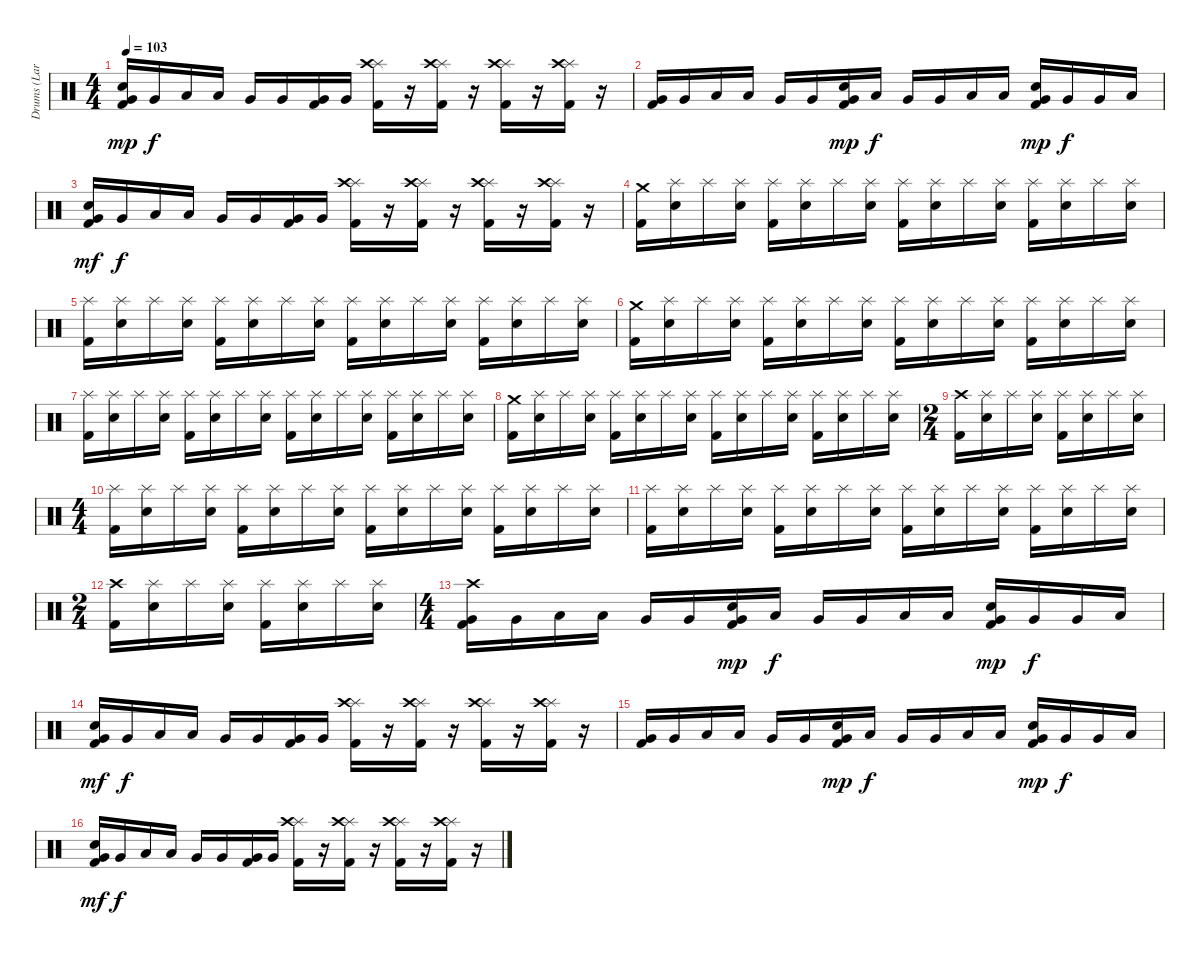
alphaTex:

\track ("Drums (Lars)" "Drums (Lar") {instrument percussion}
\staff {score}
\articulation defaults
\ts (4 4)
\tempo 103
\clef neutral
\ks c
("Very Low Tom (hit)" "Snare (hit) 2" "Kick (hit) 2").16{dy mp} "Very Low Tom (hit)".16{dy f} "Low Tom (hit)".16 "Low Tom (hit)".16 "Very Low Tom (hit)".16 "Very Low Tom (hit)".16 ("Very Low Tom (hit)" "Kick (hit) 2").16 "Very Low Tom (hit)".16 ("Splash (hit)" "Crash high (hit)" "Kick (hit) 2").16 r.16 ("Splash (hit)" "Crash high (hit)" "Kick (hit) 2").16 r.16 ("Splash (hit)" "Crash high (hit)" "Kick (hit) 2").16 r.16 ("Splash (hit)" "Crash high (hit)" "Kick (hit) 2").16 r.16 |
("Very Low Tom (hit)" "Kick (hit) 2").16 "Very Low Tom (hit)".16 "Low Tom (hit)".16 "Low Tom (hit)".16 "Very Low Tom (hit)".16 "Very Low Tom (hit)".16 ("Very Low Tom (hit)" "Snare (hit) 2" "Kick (hit) 2").16{dy mp} "Low Floor Tom (hit)".16{dy f} "Very Low Tom (hit)".16 "Very Low Tom (hit)".16 "Low Tom (hit)".16 "Low Tom (hit)".16 ("Very Low Tom (hit)" "Snare (hit) 2" "Kick (hit) 2").16{dy mp} "Very Low Tom (hit)".16{dy f} "Very Low Tom (hit)".16 "Low Floor Tom (hit)".16 |
("Very Low Tom (hit)" "Snare (hit) 2" "Kick (hit) 2").16{dy mf} "Very Low Tom (hit)".16{dy f} "Low Tom (hit)".16 "Low Tom (hit)".16 "Very Low Tom (hit)".16 "Very Low Tom (hit)".16 ("Very Low Tom (hit)" "Kick (hit) 2").16 "Very Low Tom (hit)".16 ("Splash (hit)" "Crash high (hit)" "Kick (hit) 2").16 r.16 ("Splash (hit)" "Crash high (hit)" "Kick (hit) 2").16 r.16 ("Splash (hit)" "Crash high (hit)" "Kick (hit) 2").16 r.16 ("Splash (hit)" "Crash high (hit)" "Kick (hit) 2").16 r.16 |
("Crash medium (hit)" "Kick (hit) 2").16 ("Splash (hit)" "Snare (hit) 2").16 "Splash (hit)".16 ("Splash (hit)" "Snare (hit) 2").16 ("Splash (hit)" "Kick (hit) 2").16 ("Splash (hit)" "Snare (hit) 2").16 "Splash (hit)".16 ("Splash (hit)" "Snare (hit) 2").16 ("Splash (hit)" "Kick (hit) 2").16 ("Splash (hit)" "Snare (hit) 2").16 "Splash (hit)".16 ("Splash (hit)" "Snare (hit) 2").16 ("Splash (hit)" "Kick (hit) 2").16 ("Splash (hit)" "Snare (hit) 2").16 "Splash (hit)".16 ("Splash (hit)" "Snare (hit) 2").16 |
("Splash (hit)" "Kick (hit) 2").16 ("Splash (hit)" "Snare (hit) 2").16 "Splash (hit)".16 ("Splash (hit)" "Snare (hit) 2").16 ("Splash (hit)" "Kick (hit) 2").16 ("Splash (hit)" "Snare (hit) 2").16 "Splash (hit)".16 ("Splash (hit)" "Snare (hit) 2").16 ("Splash (hit)" "Kick (hit) 2").16 ("Splash (hit)" "Snare (hit) 2").16 "Splash (hit)".16 ("Splash (hit)" "Snare (hit) 2").16 ("Splash (hit)" "Kick (hit) 2").16 ("Splash (hit)" "Snare (hit) 2").16 "Splash (hit)".16 ("Splash (hit)" "Snare (hit) 2").16 |
("Crash medium (hit)" "Kick (hit) 2").16 ("Splash (hit)" "Snare (hit) 2").16 "Splash (hit)".16 ("Splash (hit)" "Snare (hit) 2").16 ("Splash (hit)" "Kick (hit) 2").16 ("Splash (hit)" "Snare (hit) 2").16 "Splash (hit)".16 ("Splash (hit)" "Snare (hit) 2").16 ("Splash (hit)" "Kick (hit) 2").16 ("Splash (hit)" "Snare (hit) 2").16 "Splash (hit)".16 ("Splash (hit)" "Snare (hit) 2").16 ("Splash (hit)" "Kick (hit) 2").16 ("Splash (hit)" "Snare (hit) 2").16 "Splash (hit)".16 ("Splash (hit)" "Snare (hit) 2").16 |
("Splash (hit)" "Kick (hit) 2").16 ("Splash (hit)" "Snare (hit) 2").16 "Splash (hit)".16 ("Splash (hit)" "Snare (hit) 2").16 ("Splash (hit)" "Kick (hit) 2").16 ("Splash (hit)" "Snare (hit) 2").16 "Splash (hit)".16 ("Splash (hit)" "Snare (hit) 2").16 ("Splash (hit)" "Kick (hit) 2").16 ("Splash (hit)" "Snare (hit) 2").16 "Splash (hit)".16 ("Splash (hit)" "Snare (hit) 2").16 ("Splash (hit)" "Kick (hit) 2").16 ("Splash (hit)" "Snare (hit) 2").16 "Splash (hit)".16 ("Splash (hit)" "Snare (hit) 2").16 |
("Crash medium (hit)" "Kick (hit) 2").16 ("Splash (hit)" "Snare (hit) 2").16 "Splash (hit)".16 ("Splash (hit)" "Snare (hit) 2").16 ("Splash (hit)" "Kick (hit) 2").16 ("Splash (hit)" "Snare (hit) 2").16 "Splash (hit)".16 ("Splash (hit)" "Snare (hit) 2").16 ("Splash (hit)" "Kick (hit) 2").16 ("Splash (hit)" "Snare (hit) 2").16 "Splash (hit)".16 ("Splash (hit)" "Snare (hit) 2").16 ("Splash (hit)" "Kick (hit) 2").16 ("Splash (hit)" "Snare (hit) 2").16 "Splash (hit)".16 ("Splash (hit)" "Snare (hit) 2").16 |
\ts (2 4)
("Crash high (hit)" "Kick (hit) 2").16 ("Splash (hit)" "Snare (hit) 2").16 "Splash (hit)".16 ("Splash (hit)" "Snare (hit) 2").16 ("Splash (hit)" "Kick (hit) 2").16 ("Splash (hit)" "Snare (hit) 2").16 "Splash (hit)".16 ("Splash (hit)" "Snare (hit) 2").16 |
\ts (4 4)
("Splash (hit)" "Kick (hit) 2").16 ("Splash (hit)" "Snare (hit) 2").16 "Splash (hit)".16 ("Splash (hit)" "Snare (hit) 2").16 ("Splash (hit)" "Kick (hit) 2").16 ("Splash (hit)" "Snare (hit) 2").16 "Splash (hit)".16 ("Splash (hit)" "Snare (hit) 2").16 ("Splash (hit)" "Kick (hit) 2").16 ("Splash (hit)" "Snare (hit) 2").16 "Splash (hit)".16 ("Splash (hit)" "Snare (hit) 2").16 ("Splash (hit)" "Kick (hit) 2").16 ("Splash (hit)" "Snare (hit) 2").16 "Splash (hit)".16 ("Splash (hit)" "Snare (hit) 2").16 |
("Splash (hit)" "Kick (hit) 2").16 ("Splash (hit)" "Snare (hit) 2").16 "Splash (hit)".16 ("Splash (hit)" "Snare (hit) 2").16 ("Splash (hit)" "Kick (hit) 2").16 ("Splash (hit)" "Snare (hit) 2").16 "Splash (hit)".16 ("Splash (hit)" "Snare (hit) 2").16 ("Splash (hit)" "Kick (hit) 2").16 ("Splash (hit)" "Snare (hit) 2").16 "Splash (hit)".16 ("Splash (hit)" "Snare (hit) 2").16 ("Splash (hit)" "Kick (hit) 2").16 ("Splash (hit)" "Snare (hit) 2").16 "Splash (hit)".16 ("Splash (hit)" "Snare (hit) 2").16 |
\ts (2 4)
("Crash high (hit)" "Kick (hit) 2").16 ("Splash (hit)" "Snare (hit) 2").16 "Splash (hit)".16 ("Splash (hit)" "Snare (hit) 2").16 ("Splash (hit)" "Kick (hit) 2").16 ("Splash (hit)" "Snare (hit) 2").16 "Splash (hit)".16 ("Splash (hit)" "Snare (hit) 2").16 |
\ts (4 4)
("Crash high (hit)" "Very Low Tom (hit)" "Kick (hit) 2").16 "Very Low Tom (hit)".16 "Low Tom (hit)".16 "Low Tom (hit)".16 "Very Low Tom (hit)".16 "Very Low Tom (hit)".16 ("Very Low Tom (hit)" "Snare (hit) 2" "Kick (hit) 2").16{dy mp} "Low Floor Tom (hit)".16{dy f} "Very Low Tom (hit)".16 "Very Low Tom (hit)".16 "Low Tom (hit)".16 "Low Tom (hit)".16 ("Very Low Tom (hit)" "Snare (hit) 2" "Kick (hit) 2").16{dy mp} "Very Low Tom (hit)".16{dy f} "Very Low Tom (hit)".16 "Low Floor Tom (hit)".16 |
("Very Low Tom (hit)" "Snare (hit) 2" "Kick (hit) 2").16{dy mf} "Very Low Tom (hit)".16{dy f} "Low Tom (hit)".16 "Low Tom (hit)".16 "Very Low Tom (hit)".16 "Very Low Tom (hit)".16 ("Very Low Tom (hit)" "Kick (hit) 2").16 "Very Low Tom (hit)".16 ("Splash (hit)" "Crash high (hit)" "Kick (hit) 2").16 r.16 ("Splash (hit)" "Crash high (hit)" "Kick (hit) 2").16 r.16 ("Splash (hit)" "Crash high (hit)" "Kick (hit) 2").16 r.16 ("Splash (hit)" "Crash high (hit)" "Kick (hit) 2").16 r.16 |
("Very Low Tom (hit)" "Kick (hit) 2").16 "Very Low Tom (hit)".16 "Low Tom (hit)".16 "Low Tom (hit)".16 "Very Low Tom (hit)".16 "Very Low Tom (hit)".16 ("Very Low Tom (hit)" "Snare (hit) 2" "Kick (hit) 2").16{dy mp} "Low Floor Tom (hit)".16{dy f} "Very Low Tom (hit)".16 "Very Low Tom (hit)".16 "Low Tom (hit)".16 "Low Tom (hit)".16 ("Very Low Tom (hit)" "Snare (hit) 2" "Kick (hit) 2").16{dy mp} "Very Low Tom (hit)".16{dy f} "Very Low Tom (hit)".16 "Low Floor Tom (hit)".16 |
("Very Low Tom (hit)" "Snare (hit) 2" "Kick (hit) 2").16{dy mf} "Very Low Tom (hit)".16{dy f} "Low Tom (hit)".16 "Low Tom (hit)".16 "Very Low Tom (hit)".16 "Very Low Tom (hit)".16 ("Very Low Tom (hit)" "Kick (hit) 2").16 "Very Low Tom (hit)".16 ("Splash (hit)" "Crash high (hit)" "Kick (hit) 2").16 r.16 ("Splash (hit)" "Crash high (hit)" "Kick (hit) 2").16 r.16 ("Splash (hit)" "Crash high (hit)" "Kick (hit) 2").16 r.16 ("Splash (hit)" "Crash high (hit)" "Kick (hit) 2").16 r.16
